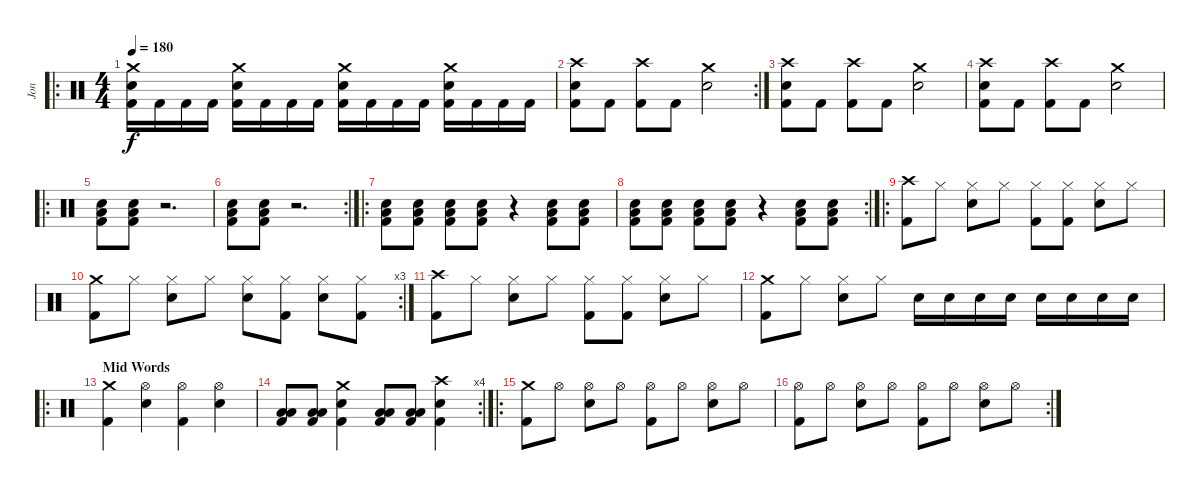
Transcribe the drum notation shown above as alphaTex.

\track ("Jon" "Jon") {instrument percussion}
\staff {score}
\articulation defaults
\ro
\ts (4 4)
\tempo 180
\clef neutral
\ks c
("Crash medium (hit)" "Snare (hit) 2" "Kick (hit) 2").16{dy f} "Kick (hit) 2".16 "Kick (hit) 2".16 "Kick (hit) 2".16 ("Crash medium (hit)" "Snare (hit) 2" "Kick (hit) 2").16 "Kick (hit) 2".16 "Kick (hit) 2".16 "Kick (hit) 2".16 ("Crash medium (hit)" "Snare (hit) 2" "Kick (hit) 2").16 "Kick (hit) 2".16 "Kick (hit) 2".16 "Kick (hit) 2".16 ("Crash medium (hit)" "Snare (hit) 2" "Kick (hit) 2").16 "Kick (hit) 2".16 "Kick (hit) 2".16 "Kick (hit) 2".16 |
\rc 2
("Crash high (hit)" "Snare (hit) 2" "Kick (hit) 2").8 "Kick (hit) 2".8 ("Crash high (hit)" "Kick (hit) 2").8 "Kick (hit) 2".8 ("Crash medium (hit)" "Snare (hit) 2").2 |
("Crash high (hit)" "Snare (hit) 2" "Kick (hit) 2").8 "Kick (hit) 2".8 ("Crash high (hit)" "Kick (hit) 2").8 "Kick (hit) 2".8 ("Crash medium (hit)" "Snare (hit) 2").2 |
("Crash high (hit)" "Snare (hit) 2" "Kick (hit) 2").8 "Kick (hit) 2".8 ("Crash high (hit)" "Kick (hit) 2").8 "Kick (hit) 2".8 ("Crash medium (hit)" "Snare (hit) 2").2 |
\ro
("Snare (hit) 2" "Low Floor Tom (hit)" "Kick (hit) 2").8 ("Snare (hit) 2" "Low Floor Tom (hit)" "Kick (hit) 2").8 r.2{d} |
\rc 2
("Low Floor Tom (hit)" "Snare (hit) 2" "Kick (hit) 2").8 ("Low Floor Tom (hit)" "Snare (hit) 2" "Kick (hit) 2").8 r.2{d} |
\ro
("Snare (hit) 2" "Low Floor Tom (hit)" "Kick (hit) 2").8 ("Low Floor Tom (hit)" "Snare (hit) 2" "Kick (hit) 2").8 ("Snare (hit) 2" "Low Floor Tom (hit)" "Kick (hit) 2").8 ("Snare (hit) 2" "Low Floor Tom (hit)" "Kick (hit) 2").8 r.4 ("Snare (hit) 2" "Low Floor Tom (hit)" "Kick (hit) 2").8 ("Snare (hit) 2" "Low Floor Tom (hit)" "Kick (hit) 2").8 |
\rc 2
("Snare (hit) 2" "Low Floor Tom (hit)" "Kick (hit) 2").8 ("Low Floor Tom (hit)" "Snare (hit) 2" "Kick (hit) 2").8 ("Snare (hit) 2" "Low Floor Tom (hit)" "Kick (hit) 2").8 ("Snare (hit) 2" "Low Floor Tom (hit)" "Kick (hit) 2").8 r.4 ("Snare (hit) 2" "Low Floor Tom (hit)" "Kick (hit) 2").8 ("Snare (hit) 2" "Low Floor Tom (hit)" "Kick (hit) 2").8 |
\ro
("Crash high (hit)" "Kick (hit) 2").8 "Hi-Hat (closed)".8 ("Hi-Hat (closed)" "Snare (hit) 2").8 "Hi-Hat (closed)".8 ("Hi-Hat (closed)" "Kick (hit) 2").8 ("Hi-Hat (closed)" "Kick (hit) 2").8 ("Hi-Hat (closed)" "Snare (hit) 2").8 "Hi-Hat (closed)".8 |
\rc 3
("Crash medium (hit)" "Kick (hit) 2").8 "Hi-Hat (closed)".8 ("Hi-Hat (closed)" "Snare (hit) 2").8 "Hi-Hat (closed)".8 ("Hi-Hat (closed)" "Snare (hit) 2").8 ("Hi-Hat (closed)" "Kick (hit) 2").8 ("Hi-Hat (closed)" "Snare (hit) 2").8 ("Hi-Hat (closed)" "Kick (hit) 2").8 |
("Crash high (hit)" "Kick (hit) 2").8 "Hi-Hat (closed)".8 ("Hi-Hat (closed)" "Snare (hit) 2").8 "Hi-Hat (closed)".8 ("Hi-Hat (closed)" "Kick (hit) 2").8 ("Hi-Hat (closed)" "Kick (hit) 2").8 ("Hi-Hat (closed)" "Snare (hit) 2").8 "Hi-Hat (closed)".8 |
("Crash medium (hit)" "Kick (hit) 2").8 "Hi-Hat (closed)".8 ("Hi-Hat (closed)" "Snare (hit) 2").8 "Hi-Hat (closed)".8 "Snare (hit) 2".16 "Snare (hit) 2".16 "Snare (hit) 2".16 "Snare (hit) 2".16 "Snare (hit) 2".16 "Snare (hit) 2".16 "Snare (hit) 2".16 "Snare (hit) 2".16 |
\ro
\section ("" "Mid Words")
("Crash medium (hit)" "Kick (hit) 2").4 ("Hi-Hat (open)" "Snare (hit) 2").4 ("Hi-Hat (open)" "Kick (hit) 2").4 ("Hi-Hat (open)" "Snare (hit) 2").4 |
\rc 4
("Low Tom (hit)" "Low Floor Tom (hit)" "Kick (hit) 2").8 ("Low Tom (hit)" "Low Floor Tom (hit)" "Kick (hit) 2").8 ("Crash medium (hit)" "Snare (hit) 2" "Kick (hit) 2").4 ("Low Tom (hit)" "Low Floor Tom (hit)" "Kick (hit) 2").8 ("Low Tom (hit)" "Low Floor Tom (hit)" "Kick (hit) 2").8 ("Crash high (hit)" "Snare (hit) 2" "Kick (hit) 2").4 |
\ro
("Crash medium (hit)" "Kick (hit) 2").8 "Hi-Hat (open)".8 ("Hi-Hat (open)" "Snare (hit) 2").8 "Hi-Hat (open)".8 ("Hi-Hat (open)" "Kick (hit) 2").8 "Hi-Hat (open)".8 ("Hi-Hat (open)" "Snare (hit) 2").8 "Hi-Hat (open)".8 |
\rc 2
("Hi-Hat (open)" "Kick (hit) 2").8 "Hi-Hat (open)".8 ("Hi-Hat (open)" "Snare (hit) 2").8 "Hi-Hat (open)".8 ("Hi-Hat (open)" "Kick (hit) 2").8 "Hi-Hat (open)".8 ("Hi-Hat (open)" "Snare (hit) 2").8 "Hi-Hat (open)".8
